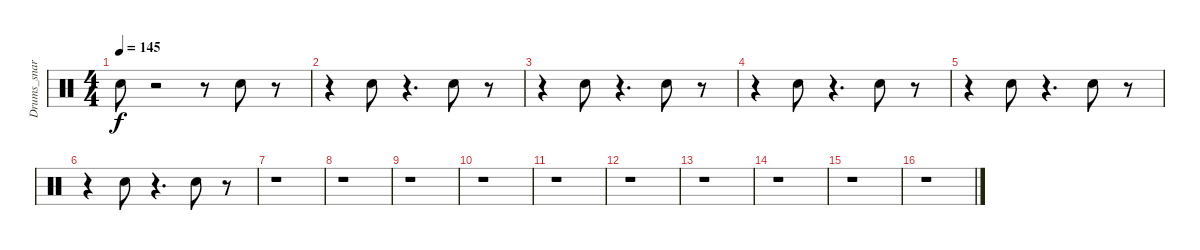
\track ("Drums_snare&tom" "Drums_snar") {instrument percussion}
\staff {score}
\articulation defaults
\ts (4 4)
\tempo 145
\clef neutral
\ks c "Electric Snare (hit)".8{dy f}
r.2 r.8 "Electric Snare (hit)".8 r.8 |
r.4 "Electric Snare (hit)".8 r.4{d} "Electric Snare (hit)".8 r.8 |
r.4 "Electric Snare (hit)".8 r.4{d} "Electric Snare (hit)".8 r.8 |
r.4 "Electric Snare (hit)".8 r.4{d} "Electric Snare (hit)".8 r.8 |
r.4 "Electric Snare (hit)".8 r.4{d} "Electric Snare (hit)".8 r.8 |
r.4 "Electric Snare (hit)".8 r.4{d} "Electric Snare (hit)".8 r.8 |
r.1 |
r.1 |
r.1 |
r.1 |
r.1 |
r.1 |
r.1 |
r.1 |
r.1 |
r.1
